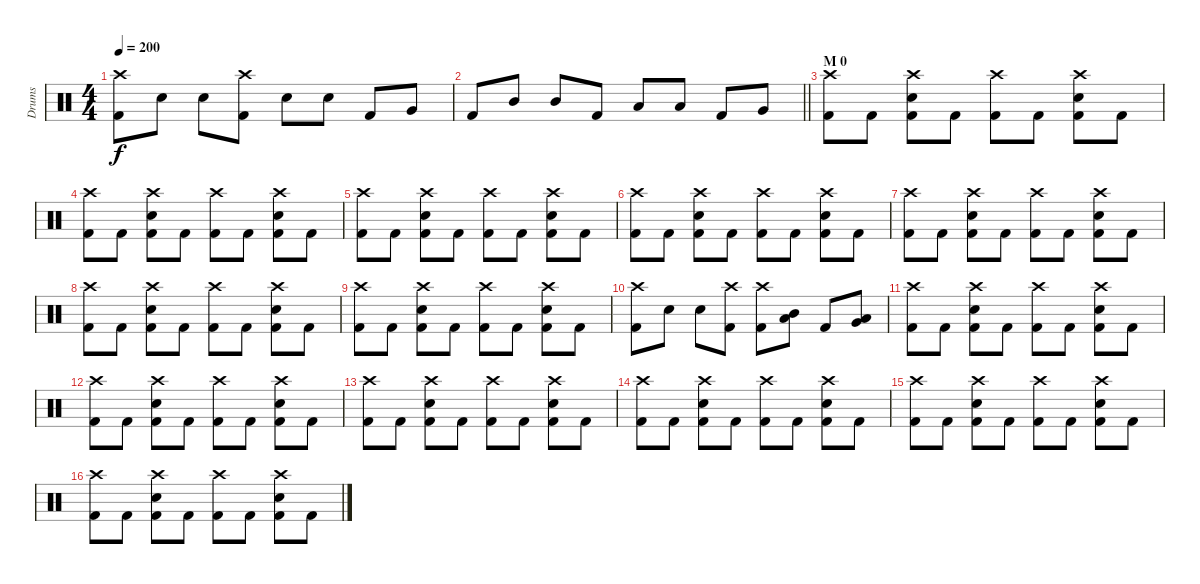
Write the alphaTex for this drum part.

\track ("Drums" "Drums") {instrument percussion}
\staff {score}
\articulation defaults
\ts (4 4)
\tempo 200
\clef neutral
\ks c
("Crash high (hit)" "Kick (hit) 2").8{dy f} "Snare (hit) 2".8 "Snare (hit) 2".8 ("Crash high (hit)" "Kick (hit) 2").8 "Snare (hit) 2".8 "Snare (hit) 2".8 "Kick (hit) 2".8 "Very Low Tom (hit)".8 |
\barLineRight lightlight "Kick (hit) 2".8 "Mid Tom (hit)".8 "Mid Tom (hit)".8 "Kick (hit) 2".8 "Low Tom (hit)".8 "Low Tom (hit)".8 "Kick (hit) 2".8 "Very Low Tom (hit)".8
|
\section ("" "M 0")
("Crash high (hit)" "Kick (hit) 2").8 "Kick (hit) 2".8 ("Crash high (hit)" "Snare (hit) 2" "Kick (hit) 2").8 "Kick (hit) 2".8 ("Crash high (hit)" "Kick (hit) 2").8 "Kick (hit) 2".8 ("Crash high (hit)" "Snare (hit) 2" "Kick (hit) 2").8 "Kick (hit) 2".8 |
("Crash high (hit)" "Kick (hit) 2").8 "Kick (hit) 2".8 ("Crash high (hit)" "Snare (hit) 2" "Kick (hit) 2").8 "Kick (hit) 2".8 ("Crash high (hit)" "Kick (hit) 2").8 "Kick (hit) 2".8 ("Crash high (hit)" "Snare (hit) 2" "Kick (hit) 2").8 "Kick (hit) 2".8 |
("Crash high (hit)" "Kick (hit) 2").8 "Kick (hit) 2".8 ("Crash high (hit)" "Snare (hit) 2" "Kick (hit) 2").8 "Kick (hit) 2".8 ("Crash high (hit)" "Kick (hit) 2").8 "Kick (hit) 2".8 ("Crash high (hit)" "Snare (hit) 2" "Kick (hit) 2").8 "Kick (hit) 2".8 |
("Crash high (hit)" "Kick (hit) 2").8 "Kick (hit) 2".8 ("Crash high (hit)" "Snare (hit) 2" "Kick (hit) 2").8 "Kick (hit) 2".8 ("Crash high (hit)" "Kick (hit) 2").8 "Kick (hit) 2".8 ("Crash high (hit)" "Snare (hit) 2" "Kick (hit) 2").8 "Kick (hit) 2".8 |
("Crash high (hit)" "Kick (hit) 2").8 "Kick (hit) 2".8 ("Crash high (hit)" "Snare (hit) 2" "Kick (hit) 2").8 "Kick (hit) 2".8 ("Crash high (hit)" "Kick (hit) 2").8 "Kick (hit) 2".8 ("Crash high (hit)" "Snare (hit) 2" "Kick (hit) 2").8 "Kick (hit) 2".8 |
("Crash high (hit)" "Kick (hit) 2").8 "Kick (hit) 2".8 ("Crash high (hit)" "Snare (hit) 2" "Kick (hit) 2").8 "Kick (hit) 2".8 ("Crash high (hit)" "Kick (hit) 2").8 "Kick (hit) 2".8 ("Crash high (hit)" "Snare (hit) 2" "Kick (hit) 2").8 "Kick (hit) 2".8 |
("Crash high (hit)" "Kick (hit) 2").8 "Kick (hit) 2".8 ("Crash high (hit)" "Snare (hit) 2" "Kick (hit) 2").8 "Kick (hit) 2".8 ("Crash high (hit)" "Kick (hit) 2").8 "Kick (hit) 2".8 ("Crash high (hit)" "Snare (hit) 2" "Kick (hit) 2").8 "Kick (hit) 2".8 |
("Crash high (hit)" "Kick (hit) 2").8 "Snare (hit) 2".8 "Snare (hit) 2".8 ("Crash high (hit)" "Kick (hit) 2").8 ("Crash high (hit)" "Kick (hit) 2").8 ("Low Tom (hit)" "Mid Tom (hit)").8 "Kick (hit) 2".8 ("Low Tom (hit)" "Very Low Tom (hit)").8 |
("Crash high (hit)" "Kick (hit) 2").8 "Kick (hit) 2".8 ("Crash high (hit)" "Snare (hit) 2" "Kick (hit) 2").8 "Kick (hit) 2".8 ("Crash high (hit)" "Kick (hit) 2").8 "Kick (hit) 2".8 ("Crash high (hit)" "Snare (hit) 2" "Kick (hit) 2").8 "Kick (hit) 2".8 |
("Crash high (hit)" "Kick (hit) 2").8 "Kick (hit) 2".8 ("Crash high (hit)" "Snare (hit) 2" "Kick (hit) 2").8 "Kick (hit) 2".8 ("Crash high (hit)" "Kick (hit) 2").8 "Kick (hit) 2".8 ("Crash high (hit)" "Snare (hit) 2" "Kick (hit) 2").8 "Kick (hit) 2".8 |
("Crash high (hit)" "Kick (hit) 2").8 "Kick (hit) 2".8 ("Crash high (hit)" "Snare (hit) 2" "Kick (hit) 2").8 "Kick (hit) 2".8 ("Crash high (hit)" "Kick (hit) 2").8 "Kick (hit) 2".8 ("Crash high (hit)" "Snare (hit) 2" "Kick (hit) 2").8 "Kick (hit) 2".8 |
("Crash high (hit)" "Kick (hit) 2").8 "Kick (hit) 2".8 ("Crash high (hit)" "Snare (hit) 2" "Kick (hit) 2").8 "Kick (hit) 2".8 ("Crash high (hit)" "Kick (hit) 2").8 "Kick (hit) 2".8 ("Crash high (hit)" "Snare (hit) 2" "Kick (hit) 2").8 "Kick (hit) 2".8 |
("Crash high (hit)" "Kick (hit) 2").8 "Kick (hit) 2".8 ("Crash high (hit)" "Snare (hit) 2" "Kick (hit) 2").8 "Kick (hit) 2".8 ("Crash high (hit)" "Kick (hit) 2").8 "Kick (hit) 2".8 ("Crash high (hit)" "Snare (hit) 2" "Kick (hit) 2").8 "Kick (hit) 2".8 |
("Crash high (hit)" "Kick (hit) 2").8 "Kick (hit) 2".8 ("Crash high (hit)" "Snare (hit) 2" "Kick (hit) 2").8 "Kick (hit) 2".8 ("Crash high (hit)" "Kick (hit) 2").8 "Kick (hit) 2".8 ("Crash high (hit)" "Snare (hit) 2" "Kick (hit) 2").8 "Kick (hit) 2".8
